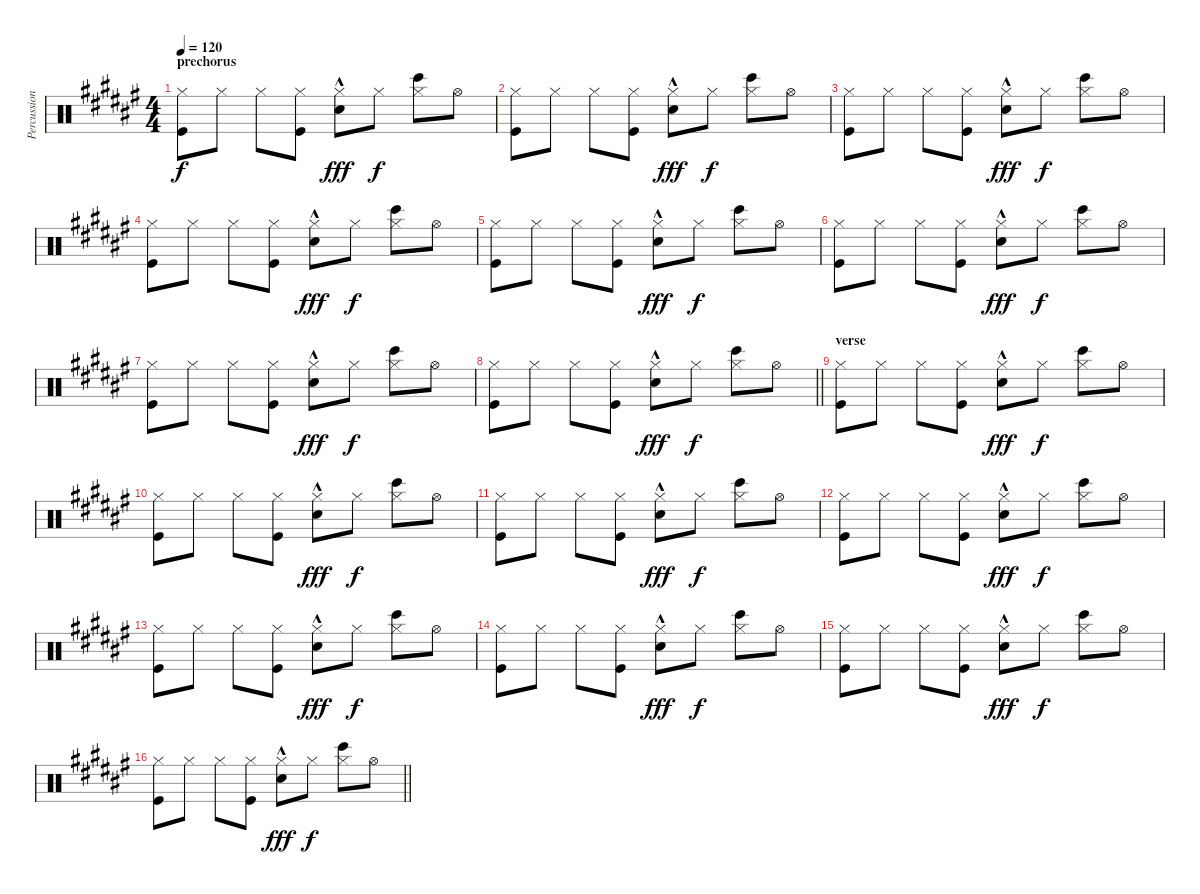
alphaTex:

\track ("Percussion" "Percussion") {instrument percussion}
\staff {score}
\articulation defaults
\ts (4 4)
\section ("" "prechorus")
\tempo 120
\clef neutral
\ks f#
("Kick (hit)" "Hi-Hat (closed)").8{dy f} "Hi-Hat (closed)".8 "Hi-Hat (closed)".8 ("Kick (hit)" "Hi-Hat (closed)").8 ("Electric Snare (hit)"{hac} "Hi-Hat (closed)").8{dy fff} "Hi-Hat (closed)".8{dy f} ("Bongo High (hit)" "Hi-Hat (closed)").8 "Hi-Hat (open)".8 |
("Kick (hit)" "Hi-Hat (closed)").8 "Hi-Hat (closed)".8 "Hi-Hat (closed)".8 ("Kick (hit)" "Hi-Hat (closed)").8 ("Electric Snare (hit)"{hac} "Hi-Hat (closed)").8{dy fff} "Hi-Hat (closed)".8{dy f} ("Bongo High (hit)" "Hi-Hat (closed)").8 "Hi-Hat (open)".8 |
("Kick (hit)" "Hi-Hat (closed)").8 "Hi-Hat (closed)".8 "Hi-Hat (closed)".8 ("Kick (hit)" "Hi-Hat (closed)").8 ("Electric Snare (hit)"{hac} "Hi-Hat (closed)").8{dy fff} "Hi-Hat (closed)".8{dy f} ("Bongo High (hit)" "Hi-Hat (closed)").8 "Hi-Hat (open)".8 |
("Kick (hit)" "Hi-Hat (closed)").8 "Hi-Hat (closed)".8 "Hi-Hat (closed)".8 ("Kick (hit)" "Hi-Hat (closed)").8 ("Electric Snare (hit)"{hac} "Hi-Hat (closed)").8{dy fff} "Hi-Hat (closed)".8{dy f} ("Bongo High (hit)" "Hi-Hat (closed)").8 "Hi-Hat (open)".8 |
("Kick (hit)" "Hi-Hat (closed)").8 "Hi-Hat (closed)".8 "Hi-Hat (closed)".8 ("Kick (hit)" "Hi-Hat (closed)").8 ("Electric Snare (hit)"{hac} "Hi-Hat (closed)").8{dy fff} "Hi-Hat (closed)".8{dy f} ("Bongo High (hit)" "Hi-Hat (closed)").8 "Hi-Hat (open)".8 |
("Kick (hit)" "Hi-Hat (closed)").8 "Hi-Hat (closed)".8 "Hi-Hat (closed)".8 ("Kick (hit)" "Hi-Hat (closed)").8 ("Electric Snare (hit)"{hac} "Hi-Hat (closed)").8{dy fff} "Hi-Hat (closed)".8{dy f} ("Bongo High (hit)" "Hi-Hat (closed)").8 "Hi-Hat (open)".8 |
("Kick (hit)" "Hi-Hat (closed)").8 "Hi-Hat (closed)".8 "Hi-Hat (closed)".8 ("Kick (hit)" "Hi-Hat (closed)").8 ("Electric Snare (hit)"{hac} "Hi-Hat (closed)").8{dy fff} "Hi-Hat (closed)".8{dy f} ("Bongo High (hit)" "Hi-Hat (closed)").8 "Hi-Hat (open)".8 |
\barLineRight lightlight
("Kick (hit)" "Hi-Hat (closed)").8 "Hi-Hat (closed)".8 "Hi-Hat (closed)".8 ("Kick (hit)" "Hi-Hat (closed)").8 ("Electric Snare (hit)"{hac} "Hi-Hat (closed)").8{dy fff} "Hi-Hat (closed)".8{dy f} ("Bongo High (hit)" "Hi-Hat (closed)").8 "Hi-Hat (open)".8 |
\section ("" "verse ")
("Kick (hit)" "Hi-Hat (closed)").8 "Hi-Hat (closed)".8 "Hi-Hat (closed)".8 ("Kick (hit)" "Hi-Hat (closed)").8 ("Electric Snare (hit)"{hac} "Hi-Hat (closed)").8{dy fff} "Hi-Hat (closed)".8{dy f} ("Bongo High (hit)" "Hi-Hat (closed)").8 "Hi-Hat (open)".8 |
("Kick (hit)" "Hi-Hat (closed)").8 "Hi-Hat (closed)".8 "Hi-Hat (closed)".8 ("Kick (hit)" "Hi-Hat (closed)").8 ("Electric Snare (hit)"{hac} "Hi-Hat (closed)").8{dy fff} "Hi-Hat (closed)".8{dy f} ("Bongo High (hit)" "Hi-Hat (closed)").8 "Hi-Hat (open)".8 |
("Kick (hit)" "Hi-Hat (closed)").8 "Hi-Hat (closed)".8 "Hi-Hat (closed)".8 ("Kick (hit)" "Hi-Hat (closed)").8 ("Electric Snare (hit)"{hac} "Hi-Hat (closed)").8{dy fff} "Hi-Hat (closed)".8{dy f} ("Bongo High (hit)" "Hi-Hat (closed)").8 "Hi-Hat (open)".8 |
("Kick (hit)" "Hi-Hat (closed)").8 "Hi-Hat (closed)".8 "Hi-Hat (closed)".8 ("Kick (hit)" "Hi-Hat (closed)").8 ("Electric Snare (hit)"{hac} "Hi-Hat (closed)").8{dy fff} "Hi-Hat (closed)".8{dy f} ("Bongo High (hit)" "Hi-Hat (closed)").8 "Hi-Hat (open)".8 |
("Kick (hit)" "Hi-Hat (closed)").8 "Hi-Hat (closed)".8 "Hi-Hat (closed)".8 ("Kick (hit)" "Hi-Hat (closed)").8 ("Electric Snare (hit)"{hac} "Hi-Hat (closed)").8{dy fff} "Hi-Hat (closed)".8{dy f} ("Bongo High (hit)" "Hi-Hat (closed)").8 "Hi-Hat (open)".8 |
("Kick (hit)" "Hi-Hat (closed)").8 "Hi-Hat (closed)".8 "Hi-Hat (closed)".8 ("Kick (hit)" "Hi-Hat (closed)").8 ("Electric Snare (hit)"{hac} "Hi-Hat (closed)").8{dy fff} "Hi-Hat (closed)".8{dy f} ("Bongo High (hit)" "Hi-Hat (closed)").8 "Hi-Hat (open)".8 |
("Kick (hit)" "Hi-Hat (closed)").8 "Hi-Hat (closed)".8 "Hi-Hat (closed)".8 ("Kick (hit)" "Hi-Hat (closed)").8 ("Electric Snare (hit)"{hac} "Hi-Hat (closed)").8{dy fff} "Hi-Hat (closed)".8{dy f} ("Bongo High (hit)" "Hi-Hat (closed)").8 "Hi-Hat (open)".8 |
\barLineRight lightlight
("Kick (hit)" "Hi-Hat (closed)").8 "Hi-Hat (closed)".8 "Hi-Hat (closed)".8 ("Kick (hit)" "Hi-Hat (closed)").8 ("Electric Snare (hit)"{hac} "Hi-Hat (closed)").8{dy fff} "Hi-Hat (closed)".8{dy f} ("Bongo High (hit)" "Hi-Hat (closed)").8 "Hi-Hat (open)".8
